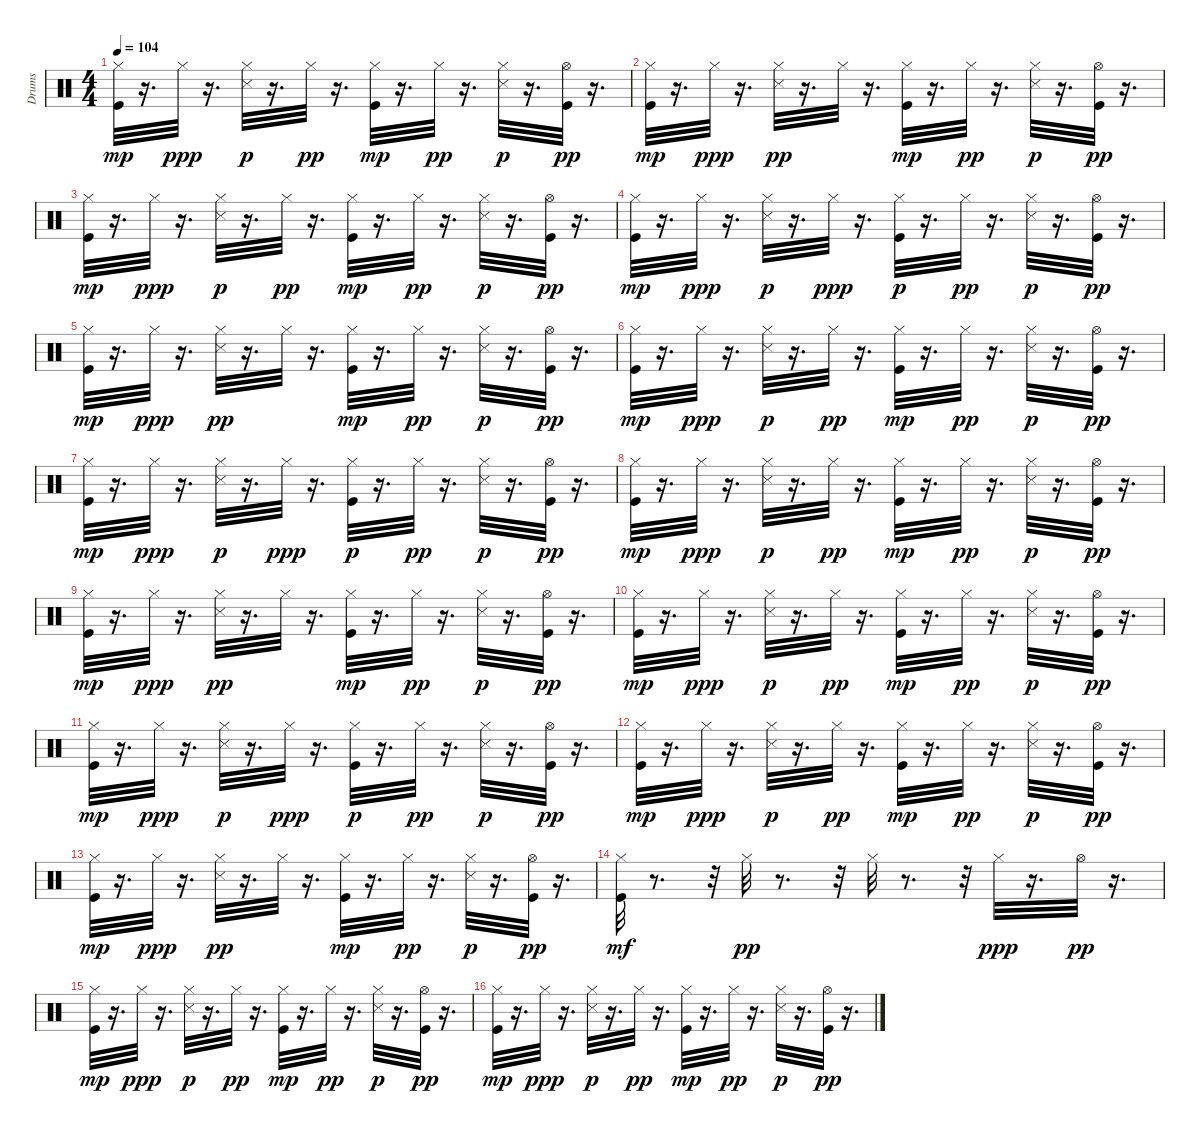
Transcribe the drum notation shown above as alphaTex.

\track ("Drums" "Drums") {instrument percussion}
\staff {score}
\articulation defaults
\ts (4 4)
\tempo 104
\clef neutral
\ks c
("Kick (hit)" "Hi-Hat (closed)").32{dy mp} r.16{d} "Hi-Hat (closed)".32{dy ppp} r.16{d} ("Snare (side stick) 3" "Hi-Hat (closed)").32{dy p} r.16{d} "Hi-Hat (closed)".32{dy pp} r.16{d} ("Kick (hit)" "Hi-Hat (closed)").32{dy mp} r.16{d} "Hi-Hat (closed)".32{dy pp} r.16{d} ("Snare (side stick) 3" "Hi-Hat (closed)").32{dy p} r.16{d} ("Kick (hit)" "Hi-Hat (open)").32{dy pp} r.16{d} |
("Kick (hit)" "Hi-Hat (closed)").32{dy mp} r.16{d} "Hi-Hat (closed)".32{dy ppp} r.16{d} ("Snare (side stick) 3" "Hi-Hat (closed)").32{dy pp} r.16{d} "Hi-Hat (closed)".32 r.16{d} ("Kick (hit)" "Hi-Hat (closed)").32{dy mp} r.16{d} "Hi-Hat (closed)".32{dy pp} r.16{d} ("Snare (side stick) 3" "Hi-Hat (closed)").32{dy p} r.16{d} ("Kick (hit)" "Hi-Hat (open)").32{dy pp} r.16{d} |
("Kick (hit)" "Hi-Hat (closed)").32{dy mp} r.16{d} "Hi-Hat (closed)".32{dy ppp} r.16{d} ("Snare (side stick) 3" "Hi-Hat (closed)").32{dy p} r.16{d} "Hi-Hat (closed)".32{dy pp} r.16{d} ("Kick (hit)" "Hi-Hat (closed)").32{dy mp} r.16{d} "Hi-Hat (closed)".32{dy pp} r.16{d} ("Snare (side stick) 3" "Hi-Hat (closed)").32{dy p} r.16{d} ("Kick (hit)" "Hi-Hat (open)").32{dy pp} r.16{d} |
("Kick (hit)" "Hi-Hat (closed)").32{dy mp} r.16{d} "Hi-Hat (closed)".32{dy ppp} r.16{d} ("Snare (side stick) 3" "Hi-Hat (closed)").32{dy p} r.16{d} "Hi-Hat (closed)".32{dy ppp} r.16{d} ("Kick (hit)" "Hi-Hat (closed)").32{dy p} r.16{d} "Hi-Hat (closed)".32{dy pp} r.16{d} ("Snare (side stick) 3" "Hi-Hat (closed)").32{dy p} r.16{d} ("Kick (hit)" "Hi-Hat (open)").32{dy pp} r.16{d} |
("Kick (hit)" "Hi-Hat (closed)").32{dy mp} r.16{d} "Hi-Hat (closed)".32{dy ppp} r.16{d} ("Snare (side stick) 3" "Hi-Hat (closed)").32{dy pp} r.16{d} "Hi-Hat (closed)".32 r.16{d} ("Kick (hit)" "Hi-Hat (closed)").32{dy mp} r.16{d} "Hi-Hat (closed)".32{dy pp} r.16{d} ("Snare (side stick) 3" "Hi-Hat (closed)").32{dy p} r.16{d} ("Kick (hit)" "Hi-Hat (open)").32{dy pp} r.16{d} |
("Kick (hit)" "Hi-Hat (closed)").32{dy mp} r.16{d} "Hi-Hat (closed)".32{dy ppp} r.16{d} ("Snare (side stick) 3" "Hi-Hat (closed)").32{dy p} r.16{d} "Hi-Hat (closed)".32{dy pp} r.16{d} ("Kick (hit)" "Hi-Hat (closed)").32{dy mp} r.16{d} "Hi-Hat (closed)".32{dy pp} r.16{d} ("Snare (side stick) 3" "Hi-Hat (closed)").32{dy p} r.16{d} ("Kick (hit)" "Hi-Hat (open)").32{dy pp} r.16{d} |
("Kick (hit)" "Hi-Hat (closed)").32{dy mp} r.16{d} "Hi-Hat (closed)".32{dy ppp} r.16{d} ("Snare (side stick) 3" "Hi-Hat (closed)").32{dy p} r.16{d} "Hi-Hat (closed)".32{dy ppp} r.16{d} ("Kick (hit)" "Hi-Hat (closed)").32{dy p} r.16{d} "Hi-Hat (closed)".32{dy pp} r.16{d} ("Snare (side stick) 3" "Hi-Hat (closed)").32{dy p} r.16{d} ("Kick (hit)" "Hi-Hat (open)").32{dy pp} r.16{d} |
("Kick (hit)" "Hi-Hat (closed)").32{dy mp} r.16{d} "Hi-Hat (closed)".32{dy ppp} r.16{d} ("Snare (side stick) 3" "Hi-Hat (closed)").32{dy p} r.16{d} "Hi-Hat (closed)".32{dy pp} r.16{d} ("Kick (hit)" "Hi-Hat (closed)").32{dy mp} r.16{d} "Hi-Hat (closed)".32{dy pp} r.16{d} ("Snare (side stick) 3" "Hi-Hat (closed)").32{dy p} r.16{d} ("Kick (hit)" "Hi-Hat (open)").32{dy pp} r.16{d} |
("Kick (hit)" "Hi-Hat (closed)").32{dy mp} r.16{d} "Hi-Hat (closed)".32{dy ppp} r.16{d} ("Snare (side stick) 3" "Hi-Hat (closed)").32{dy pp} r.16{d} "Hi-Hat (closed)".32 r.16{d} ("Kick (hit)" "Hi-Hat (closed)").32{dy mp} r.16{d} "Hi-Hat (closed)".32{dy pp} r.16{d} ("Snare (side stick) 3" "Hi-Hat (closed)").32{dy p} r.16{d} ("Kick (hit)" "Hi-Hat (open)").32{dy pp} r.16{d} |
("Kick (hit)" "Hi-Hat (closed)").32{dy mp} r.16{d} "Hi-Hat (closed)".32{dy ppp} r.16{d} ("Snare (side stick) 3" "Hi-Hat (closed)").32{dy p} r.16{d} "Hi-Hat (closed)".32{dy pp} r.16{d} ("Kick (hit)" "Hi-Hat (closed)").32{dy mp} r.16{d} "Hi-Hat (closed)".32{dy pp} r.16{d} ("Snare (side stick) 3" "Hi-Hat (closed)").32{dy p} r.16{d} ("Kick (hit)" "Hi-Hat (open)").32{dy pp} r.16{d} |
("Kick (hit)" "Hi-Hat (closed)").32{dy mp} r.16{d} "Hi-Hat (closed)".32{dy ppp} r.16{d} ("Snare (side stick) 3" "Hi-Hat (closed)").32{dy p} r.16{d} "Hi-Hat (closed)".32{dy ppp} r.16{d} ("Kick (hit)" "Hi-Hat (closed)").32{dy p} r.16{d} "Hi-Hat (closed)".32{dy pp} r.16{d} ("Snare (side stick) 3" "Hi-Hat (closed)").32{dy p} r.16{d} ("Kick (hit)" "Hi-Hat (open)").32{dy pp} r.16{d} |
("Kick (hit)" "Hi-Hat (closed)").32{dy mp} r.16{d} "Hi-Hat (closed)".32{dy ppp} r.16{d} ("Snare (side stick) 3" "Hi-Hat (closed)").32{dy p} r.16{d} "Hi-Hat (closed)".32{dy pp} r.16{d} ("Kick (hit)" "Hi-Hat (closed)").32{dy mp} r.16{d} "Hi-Hat (closed)".32{dy pp} r.16{d} ("Snare (side stick) 3" "Hi-Hat (closed)").32{dy p} r.16{d} ("Kick (hit)" "Hi-Hat (open)").32{dy pp} r.16{d} |
("Kick (hit)" "Hi-Hat (closed)").32{dy mp} r.16{d} "Hi-Hat (closed)".32{dy ppp} r.16{d} ("Snare (side stick) 3" "Hi-Hat (closed)").32{dy pp} r.16{d} "Hi-Hat (closed)".32 r.16{d} ("Kick (hit)" "Hi-Hat (closed)").32{dy mp} r.16{d} "Hi-Hat (closed)".32{dy pp} r.16{d} ("Snare (side stick) 3" "Hi-Hat (closed)").32{dy p} r.16{d} ("Kick (hit)" "Hi-Hat (open)").32{dy pp} r.16{d} |
("Hi-Hat (closed)" "Kick (hit)").32{dy mf} r.8{d} r.32 "Hi-Hat (closed)".32{dy pp} r.8{d} r.32 "Hi-Hat (closed)".32 r.8{d} r.32 "Hi-Hat (closed)".32{dy ppp} r.16{d} "Hi-Hat (open)".32{dy pp} r.16{d} |
("Kick (hit)" "Hi-Hat (closed)").32{dy mp} r.16{d} "Hi-Hat (closed)".32{dy ppp} r.16{d} ("Snare (side stick) 3" "Hi-Hat (closed)").32{dy p} r.16{d} "Hi-Hat (closed)".32{dy pp} r.16{d} ("Kick (hit)" "Hi-Hat (closed)").32{dy mp} r.16{d} "Hi-Hat (closed)".32{dy pp} r.16{d} ("Snare (side stick) 3" "Hi-Hat (closed)").32{dy p} r.16{d} ("Kick (hit)" "Hi-Hat (open)").32{dy pp} r.16{d} |
("Kick (hit)" "Hi-Hat (closed)").32{dy mp} r.16{d} "Hi-Hat (closed)".32{dy ppp} r.16{d} ("Snare (side stick) 3" "Hi-Hat (closed)").32{dy p} r.16{d} "Hi-Hat (closed)".32{dy pp} r.16{d} ("Kick (hit)" "Hi-Hat (closed)").32{dy mp} r.16{d} "Hi-Hat (closed)".32{dy pp} r.16{d} ("Snare (side stick) 3" "Hi-Hat (closed)").32{dy p} r.16{d} ("Kick (hit)" "Hi-Hat (open)").32{dy pp} r.16{d}
